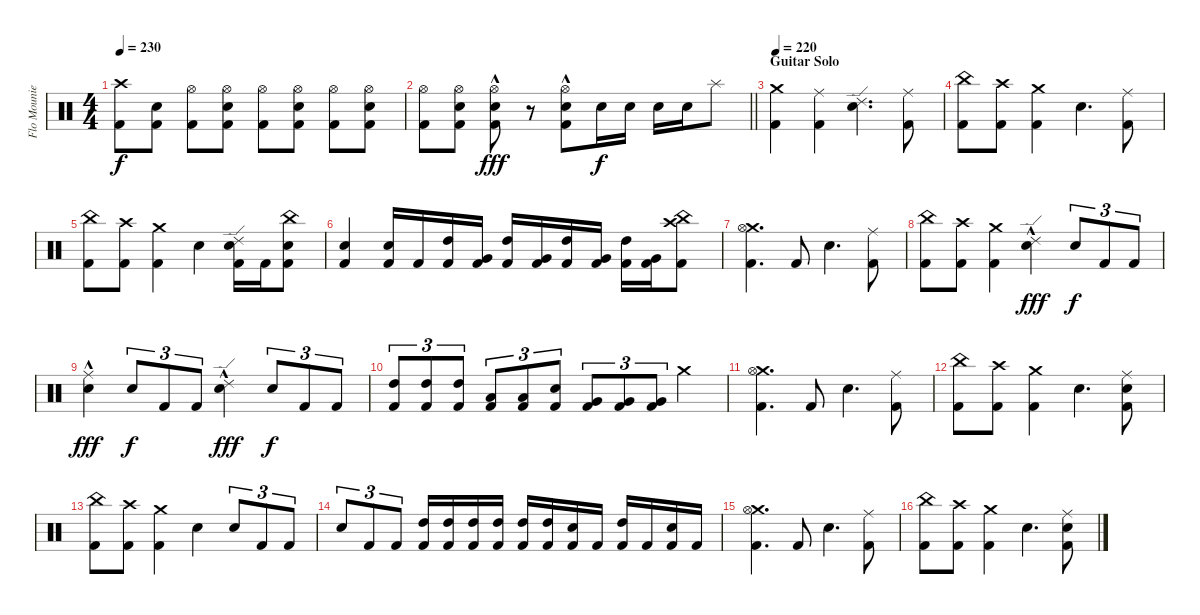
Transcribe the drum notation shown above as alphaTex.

\track ("Flo Mounier" "Flo Mounie") {instrument percussion}
\staff {score}
\articulation defaults
\ts (4 4)
\tempo 230
\clef neutral
\ks c
("Crash high (hit)" "Kick (hit) 2").8{dy f} ("Snare (hit) 2" "Kick (hit) 2").8 ("Hi-Hat (open)" "Kick (hit) 2").8 ("Hi-Hat (open)" "Snare (hit) 2" "Kick (hit) 2").8 ("Hi-Hat (open)" "Kick (hit) 2").8 ("Hi-Hat (open)" "Snare (hit) 2" "Kick (hit) 2").8 ("Hi-Hat (open)" "Kick (hit) 2").8 ("Hi-Hat (open)" "Snare (hit) 2" "Kick (hit) 2").8 |
\barLineRight lightlight
("Hi-Hat (open)" "Kick (hit) 2").8 ("Hi-Hat (open)" "Snare (hit) 2" "Kick (hit) 2").8 ("Hi-Hat (open)"{hac} "Snare (hit) 2" "Kick (hit) 2").8{dy fff} r.8 ("Hi-Hat (open)"{hac} "Snare (hit) 2" "Kick (hit) 2").8 "Snare (hit) 2".16{dy f} "Snare (hit) 2".16 "Snare (hit) 2".16 "Snare (hit) 2".16 "Splash (hit)".8 |
\section ("" "Guitar Solo")
\tempo 220
("Crash medium (hit)" "Kick (hit) 2").4 ("Ride (middle)" "Kick (hit) 2").4 ("Ride (edge) 2" "Snare (hit) 2").4{d} ("Ride (middle)" "Kick (hit) 2").8 |
("China (hit)" "Kick (hit) 2").8 ("Crash high (hit)" "Kick (hit) 2").8 ("Crash medium (hit)" "Kick (hit) 2").4 "Snare (hit) 2".4{d} ("Ride (middle)" "Kick (hit) 2").8 |
("China (hit)" "Kick (hit) 2").8 ("Crash high (hit)" "Kick (hit) 2").8 ("Crash medium (hit)" "Kick (hit) 2").4 "Snare (hit) 2".4 ("Ride (edge) 2" "Snare (hit) 2" "Kick (hit) 2").16 "Kick (hit) 2".16 ("China (hit)" "Snare (hit) 2" "Kick (hit) 2").8 |
("Snare (hit) 2" "Kick (hit) 2").4 ("Snare (hit) 2" "Kick (hit) 2").16 "Kick (hit) 2".16 ("High Tom (hit)" "Kick (hit) 2").16 ("Very Low Tom (hit)" "Kick (hit) 2").16 ("High Tom (hit)" "Kick (hit) 2").16 ("Very Low Tom (hit)" "Kick (hit) 2").16 ("High Tom (hit)" "Kick (hit) 2").16 ("Very Low Tom (hit)" "Kick (hit) 2").16 ("High Tom (hit)" "Kick (hit) 2").16 ("Very Low Tom (hit)" "Kick (hit) 2").16 ("Crash high (hit)" "China (hit)" "Kick (hit) 2").8 |
("Crash medium (hit)" "Hi-Hat (open)" "Kick (hit) 2").4{d} "Kick (hit) 2".8 "Snare (hit) 2".4{d} ("Ride (middle)" "Kick (hit) 2").8 |
("China (hit)" "Kick (hit) 2").8 ("Crash high (hit)" "Kick (hit) 2").8 ("Crash medium (hit)" "Kick (hit) 2").4 ("Ride (edge) 2"{hac} "Snare (hit) 2").4{dy fff} "Snare (hit) 2".8{tu (3 2) dy f} "Kick (hit) 2".8{tu (3 2)} "Kick (hit) 2".8{tu (3 2)} |
("Ride (middle)"{hac} "Snare (hit) 2").4{dy fff} "Snare (hit) 2".8{tu (3 2) dy f} "Kick (hit) 2".8{tu (3 2)} "Kick (hit) 2".8{tu (3 2)} ("Ride (edge) 2"{hac} "Snare (hit) 2").4{dy fff} "Snare (hit) 2".8{tu (3 2) dy f} "Kick (hit) 2".8{tu (3 2)} "Kick (hit) 2".8{tu (3 2)} |
("High Tom (hit)" "Kick (hit) 2").8{tu (3 2)} ("High Tom (hit)" "Kick (hit) 2").8{tu (3 2)} ("High Tom (hit)" "Kick (hit) 2").8{tu (3 2)} ("Low Tom (hit)" "Kick (hit) 2").8{tu (3 2)} ("Low Tom (hit)" "Kick (hit) 2").8{tu (3 2)} ("Snare (hit) 2" "Kick (hit) 2").8{tu (3 2)} ("Very Low Tom (hit)" "Kick (hit) 2").8{tu (3 2)} ("Very Low Tom (hit)" "Kick (hit) 2").8{tu (3 2)} ("Very Low Tom (hit)" "Kick (hit) 2").8{tu (3 2)} "Crash medium (hit)".4 |
("Crash medium (hit)" "Hi-Hat (open)" "Kick (hit) 2").4{d} "Kick (hit) 2".8 "Snare (hit) 2".4{d} ("Ride (middle)" "Kick (hit) 2").8 |
("China (hit)" "Kick (hit) 2").8 ("Crash high (hit)" "Kick (hit) 2").8 ("Crash medium (hit)" "Kick (hit) 2").4 "Snare (hit) 2".4{d} ("Ride (middle)" "Snare (hit) 2" "Kick (hit) 2").8 |
("China (hit)" "Kick (hit) 2").8 ("Crash high (hit)" "Kick (hit) 2").8 ("Crash medium (hit)" "Kick (hit) 2").4 "Snare (hit) 2".4 "Snare (hit) 2".8{tu (3 2)} "Kick (hit) 2".8{tu (3 2)} "Kick (hit) 2".8{tu (3 2)} |
"Snare (hit) 2".8{tu (3 2)} "Kick (hit) 2".8{tu (3 2)} "Kick (hit) 2".8{tu (3 2)} ("High Tom (hit)" "Kick (hit) 2").16 ("High Tom (hit)" "Kick (hit) 2").16 ("High Tom (hit)" "Kick (hit) 2").16 ("High Tom (hit)" "Kick (hit) 2").16 ("High Tom (hit)" "Kick (hit) 2").16 ("High Tom (hit)" "Kick (hit) 2").16 ("Snare (hit) 2" "Kick (hit) 2").16 "Kick (hit) 2".16 ("High Tom (hit)" "Kick (hit) 2").16 "Kick (hit) 2".16 ("Snare (hit) 2" "Kick (hit) 2").16 "Kick (hit) 2".16 |
("Crash medium (hit)" "Hi-Hat (open)" "Kick (hit) 2").4{d} "Kick (hit) 2".8 "Snare (hit) 2".4{d} ("Ride (middle)" "Kick (hit) 2").8 |
("China (hit)" "Kick (hit) 2").8 ("Crash high (hit)" "Kick (hit) 2").8 ("Crash medium (hit)" "Kick (hit) 2").4 "Snare (hit) 2".4{d} ("Ride (middle)" "Snare (hit) 2" "Kick (hit) 2").8
